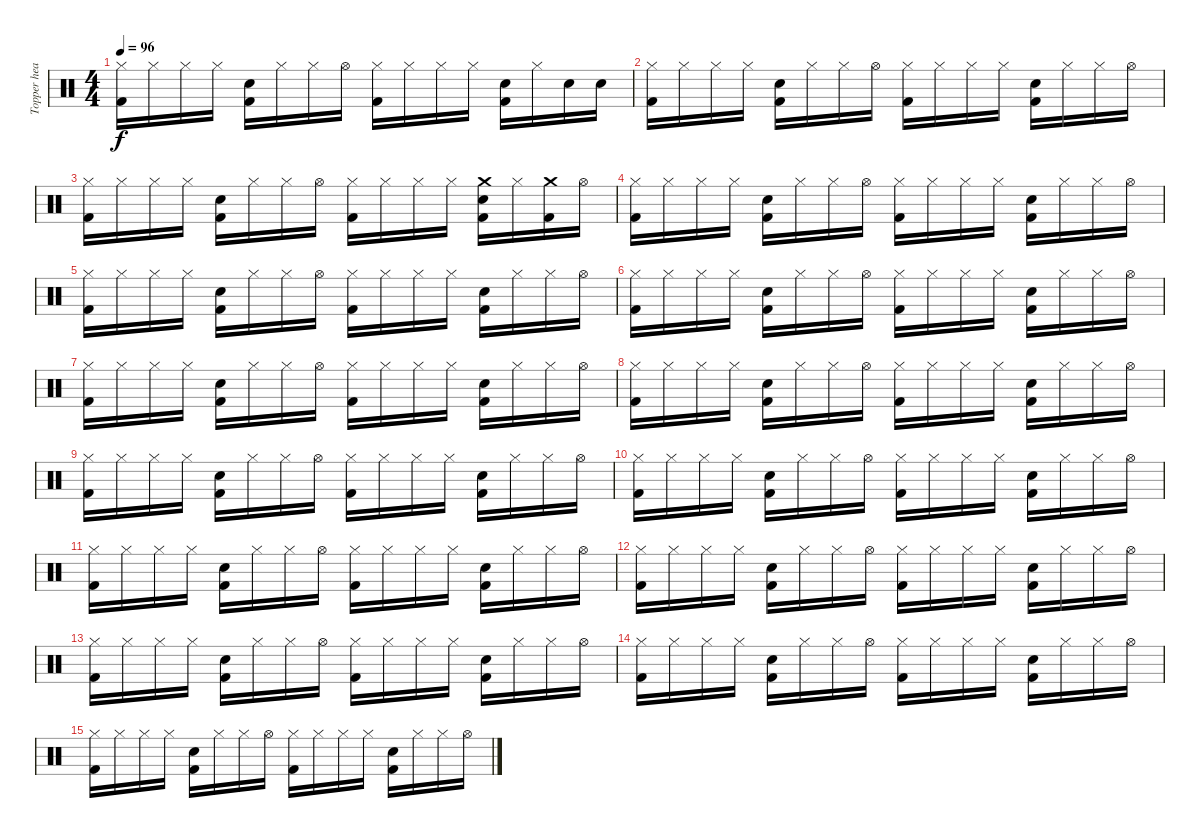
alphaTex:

\track ("Topper headon (drum)" "Topper hea") {instrument percussion}
\staff {score}
\articulation defaults
\ts (4 4)
\tempo 96
\clef neutral
\ks c
("Hi-Hat (closed)" "Kick (hit) 2").16{dy f} "Hi-Hat (closed)".16 "Hi-Hat (closed)".16 "Hi-Hat (closed)".16 ("Electric Snare (hit)" "Kick (hit) 2").16 "Hi-Hat (closed)".16 "Hi-Hat (closed)".16 "Hi-Hat (open)".16 ("Hi-Hat (closed)" "Kick (hit) 2").16 "Hi-Hat (closed)".16 "Hi-Hat (closed)".16 "Hi-Hat (closed)".16 ("Electric Snare (hit)" "Kick (hit) 2").16 "Hi-Hat (closed)".16 "Electric Snare (hit)".16 "Electric Snare (hit)".16 |
("Hi-Hat (closed)" "Kick (hit) 2").16 "Hi-Hat (closed)".16 "Hi-Hat (closed)".16 "Hi-Hat (closed)".16 ("Electric Snare (hit)" "Kick (hit) 2").16 "Hi-Hat (closed)".16 "Hi-Hat (closed)".16 "Hi-Hat (open)".16 ("Hi-Hat (closed)" "Kick (hit) 2").16 "Hi-Hat (closed)".16 "Hi-Hat (closed)".16 "Hi-Hat (closed)".16 ("Electric Snare (hit)" "Kick (hit) 2").16 "Hi-Hat (closed)".16 "Hi-Hat (closed)".16 "Hi-Hat (open)".16 |
("Hi-Hat (closed)" "Kick (hit) 2").16 "Hi-Hat (closed)".16 "Hi-Hat (closed)".16 "Hi-Hat (closed)".16 ("Electric Snare (hit)" "Kick (hit) 2").16 "Hi-Hat (closed)".16 "Hi-Hat (closed)".16 "Hi-Hat (open)".16 ("Hi-Hat (closed)" "Kick (hit) 2").16 "Hi-Hat (closed)".16 "Hi-Hat (closed)".16 "Hi-Hat (closed)".16 ("Crash medium (hit)" "Electric Snare (hit)" "Kick (hit) 2").16 "Hi-Hat (closed)".16 ("Crash medium (hit)" "Kick (hit) 2").16 "Hi-Hat (open)".16 |
("Hi-Hat (closed)" "Kick (hit) 2").16 "Hi-Hat (closed)".16 "Hi-Hat (closed)".16 "Hi-Hat (closed)".16 ("Electric Snare (hit)" "Kick (hit) 2").16 "Hi-Hat (closed)".16 "Hi-Hat (closed)".16 "Hi-Hat (open)".16 ("Hi-Hat (closed)" "Kick (hit) 2").16 "Hi-Hat (closed)".16 "Hi-Hat (closed)".16 "Hi-Hat (closed)".16 ("Electric Snare (hit)" "Kick (hit) 2").16 "Hi-Hat (closed)".16 "Hi-Hat (closed)".16 "Hi-Hat (open)".16 |
("Hi-Hat (closed)" "Kick (hit) 2").16 "Hi-Hat (closed)".16 "Hi-Hat (closed)".16 "Hi-Hat (closed)".16 ("Electric Snare (hit)" "Kick (hit) 2").16 "Hi-Hat (closed)".16 "Hi-Hat (closed)".16 "Hi-Hat (open)".16 ("Hi-Hat (closed)" "Kick (hit) 2").16 "Hi-Hat (closed)".16 "Hi-Hat (closed)".16 "Hi-Hat (closed)".16 ("Electric Snare (hit)" "Kick (hit) 2").16 "Hi-Hat (closed)".16 "Hi-Hat (closed)".16 "Hi-Hat (open)".16 |
("Hi-Hat (closed)" "Kick (hit) 2").16 "Hi-Hat (closed)".16 "Hi-Hat (closed)".16 "Hi-Hat (closed)".16 ("Electric Snare (hit)" "Kick (hit) 2").16 "Hi-Hat (closed)".16 "Hi-Hat (closed)".16 "Hi-Hat (open)".16 ("Hi-Hat (closed)" "Kick (hit) 2").16 "Hi-Hat (closed)".16 "Hi-Hat (closed)".16 "Hi-Hat (closed)".16 ("Electric Snare (hit)" "Kick (hit) 2").16 "Hi-Hat (closed)".16 "Hi-Hat (closed)".16 "Hi-Hat (open)".16 |
("Hi-Hat (closed)" "Kick (hit) 2").16{volume 8} "Hi-Hat (closed)".16 "Hi-Hat (closed)".16 "Hi-Hat (closed)".16 ("Electric Snare (hit)" "Kick (hit) 2").16 "Hi-Hat (closed)".16 "Hi-Hat (closed)".16 "Hi-Hat (open)".16 ("Hi-Hat (closed)" "Kick (hit) 2").16 "Hi-Hat (closed)".16 "Hi-Hat (closed)".16 "Hi-Hat (closed)".16 ("Electric Snare (hit)" "Kick (hit) 2").16 "Hi-Hat (closed)".16 "Hi-Hat (closed)".16 "Hi-Hat (open)".16 |
("Hi-Hat (closed)" "Kick (hit) 2").16 "Hi-Hat (closed)".16 "Hi-Hat (closed)".16 "Hi-Hat (closed)".16 ("Electric Snare (hit)" "Kick (hit) 2").16 "Hi-Hat (closed)".16 "Hi-Hat (closed)".16 "Hi-Hat (open)".16 ("Hi-Hat (closed)" "Kick (hit) 2").16 "Hi-Hat (closed)".16 "Hi-Hat (closed)".16 "Hi-Hat (closed)".16 ("Electric Snare (hit)" "Kick (hit) 2").16 "Hi-Hat (closed)".16 "Hi-Hat (closed)".16 "Hi-Hat (open)".16 |
("Hi-Hat (closed)" "Kick (hit) 2").16{volume 6} "Hi-Hat (closed)".16 "Hi-Hat (closed)".16 "Hi-Hat (closed)".16 ("Electric Snare (hit)" "Kick (hit) 2").16 "Hi-Hat (closed)".16 "Hi-Hat (closed)".16 "Hi-Hat (open)".16 ("Hi-Hat (closed)" "Kick (hit) 2").16 "Hi-Hat (closed)".16 "Hi-Hat (closed)".16 "Hi-Hat (closed)".16 ("Electric Snare (hit)" "Kick (hit) 2").16 "Hi-Hat (closed)".16 "Hi-Hat (closed)".16 "Hi-Hat (open)".16 |
("Hi-Hat (closed)" "Kick (hit) 2").16 "Hi-Hat (closed)".16 "Hi-Hat (closed)".16 "Hi-Hat (closed)".16 ("Electric Snare (hit)" "Kick (hit) 2").16 "Hi-Hat (closed)".16 "Hi-Hat (closed)".16 "Hi-Hat (open)".16 ("Hi-Hat (closed)" "Kick (hit) 2").16 "Hi-Hat (closed)".16 "Hi-Hat (closed)".16 "Hi-Hat (closed)".16 ("Electric Snare (hit)" "Kick (hit) 2").16 "Hi-Hat (closed)".16 "Hi-Hat (closed)".16 "Hi-Hat (open)".16 |
("Hi-Hat (closed)" "Kick (hit) 2").16{volume 4} "Hi-Hat (closed)".16 "Hi-Hat (closed)".16 "Hi-Hat (closed)".16 ("Electric Snare (hit)" "Kick (hit) 2").16 "Hi-Hat (closed)".16 "Hi-Hat (closed)".16 "Hi-Hat (open)".16 ("Hi-Hat (closed)" "Kick (hit) 2").16 "Hi-Hat (closed)".16 "Hi-Hat (closed)".16 "Hi-Hat (closed)".16 ("Electric Snare (hit)" "Kick (hit) 2").16 "Hi-Hat (closed)".16 "Hi-Hat (closed)".16 "Hi-Hat (open)".16 |
("Hi-Hat (closed)" "Kick (hit) 2").16 "Hi-Hat (closed)".16 "Hi-Hat (closed)".16 "Hi-Hat (closed)".16 ("Electric Snare (hit)" "Kick (hit) 2").16 "Hi-Hat (closed)".16 "Hi-Hat (closed)".16 "Hi-Hat (open)".16 ("Hi-Hat (closed)" "Kick (hit) 2").16 "Hi-Hat (closed)".16 "Hi-Hat (closed)".16 "Hi-Hat (closed)".16 ("Electric Snare (hit)" "Kick (hit) 2").16 "Hi-Hat (closed)".16 "Hi-Hat (closed)".16 "Hi-Hat (open)".16 |
("Hi-Hat (closed)" "Kick (hit) 2").16{volume 2} "Hi-Hat (closed)".16 "Hi-Hat (closed)".16 "Hi-Hat (closed)".16 ("Electric Snare (hit)" "Kick (hit) 2").16 "Hi-Hat (closed)".16 "Hi-Hat (closed)".16 "Hi-Hat (open)".16 ("Hi-Hat (closed)" "Kick (hit) 2").16 "Hi-Hat (closed)".16 "Hi-Hat (closed)".16 "Hi-Hat (closed)".16 ("Electric Snare (hit)" "Kick (hit) 2").16 "Hi-Hat (closed)".16 "Hi-Hat (closed)".16 "Hi-Hat (open)".16 |
("Hi-Hat (closed)" "Kick (hit) 2").16 "Hi-Hat (closed)".16 "Hi-Hat (closed)".16 "Hi-Hat (closed)".16 ("Electric Snare (hit)" "Kick (hit) 2").16 "Hi-Hat (closed)".16 "Hi-Hat (closed)".16 "Hi-Hat (open)".16 ("Hi-Hat (closed)" "Kick (hit) 2").16 "Hi-Hat (closed)".16 "Hi-Hat (closed)".16 "Hi-Hat (closed)".16 ("Electric Snare (hit)" "Kick (hit) 2").16 "Hi-Hat (closed)".16 "Hi-Hat (closed)".16 "Hi-Hat (open)".16 |
("Hi-Hat (closed)" "Kick (hit) 2").16{volume 0} "Hi-Hat (closed)".16 "Hi-Hat (closed)".16 "Hi-Hat (closed)".16 ("Electric Snare (hit)" "Kick (hit) 2").16 "Hi-Hat (closed)".16 "Hi-Hat (closed)".16 "Hi-Hat (open)".16 ("Hi-Hat (closed)" "Kick (hit) 2").16 "Hi-Hat (closed)".16 "Hi-Hat (closed)".16 "Hi-Hat (closed)".16 ("Electric Snare (hit)" "Kick (hit) 2").16 "Hi-Hat (closed)".16 "Hi-Hat (closed)".16 "Hi-Hat (open)".16
